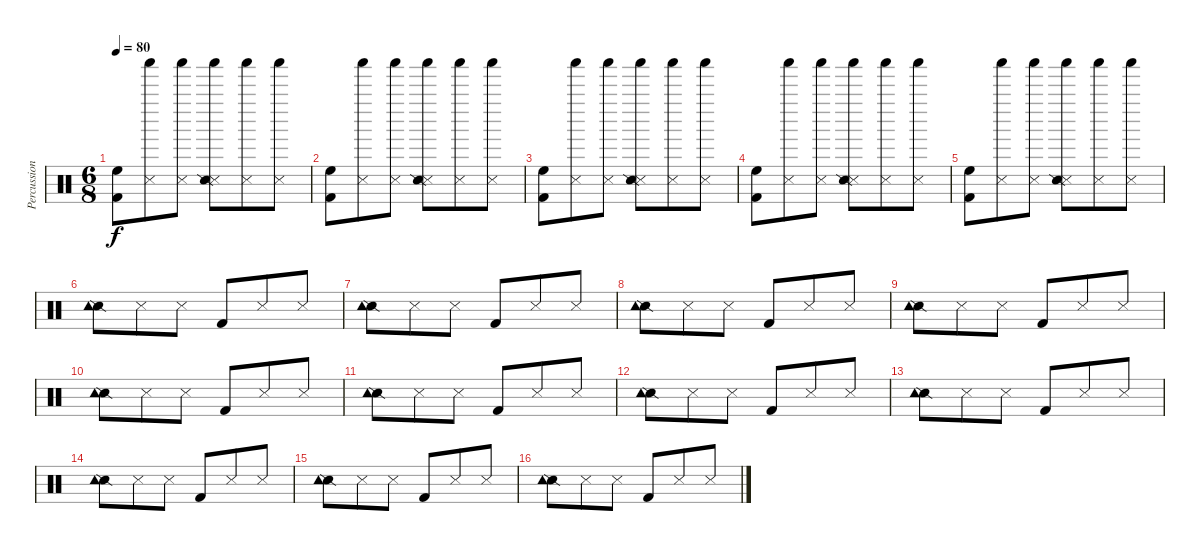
\track ("Percussion" "Percussion") {instrument percussion}
\staff {score}
\articulation defaults
\ts (6 8)
\tempo 80
\clef neutral
\ks c
("Kick (hit) 2" "High Floor Tom (hit)").8{dy f} ("Snare (side stick) 3" "Shaker (hit)").8 ("Snare (side stick) 3" "Shaker (hit)").8 ("Snare (side stick) 3" "Shaker (hit)" "Snare (side stick) 2").8 ("Snare (side stick) 3" "Shaker (hit)").8 ("Snare (side stick) 3" "Shaker (hit)").8 |
("Kick (hit) 2" "High Floor Tom (hit)").8 ("Snare (side stick) 3" "Shaker (hit)").8 ("Snare (side stick) 3" "Shaker (hit)").8 ("Snare (side stick) 3" "Shaker (hit)" "Snare (side stick) 2").8 ("Snare (side stick) 3" "Shaker (hit)").8 ("Snare (side stick) 3" "Shaker (hit)").8 |
("Kick (hit) 2" "High Floor Tom (hit)").8 ("Snare (side stick) 3" "Shaker (hit)").8 ("Snare (side stick) 3" "Shaker (hit)").8 ("Snare (side stick) 3" "Shaker (hit)" "Snare (side stick) 2").8 ("Snare (side stick) 3" "Shaker (hit)").8 ("Snare (side stick) 3" "Shaker (hit)").8 |
("Kick (hit) 2" "High Floor Tom (hit)").8 ("Snare (side stick) 3" "Shaker (hit)").8 ("Snare (side stick) 3" "Shaker (hit)").8 ("Snare (side stick) 3" "Shaker (hit)" "Snare (side stick) 2").8 ("Snare (side stick) 3" "Shaker (hit)").8 ("Snare (side stick) 3" "Shaker (hit)").8 |
("Kick (hit) 2" "High Floor Tom (hit)").8 ("Snare (side stick) 3" "Shaker (hit)").8 ("Snare (side stick) 3" "Shaker (hit)").8 ("Snare (side stick) 3" "Shaker (hit)" "Snare (side stick) 2").8 ("Snare (side stick) 3" "Shaker (hit)").8 ("Snare (side stick) 3" "Shaker (hit)").8 |
("Snare (side stick) 2" "Tambourine (hit)").8 "Snare (side stick) 3".8 "Snare (side stick) 3".8 "Kick (hit) 2".8 "Snare (side stick) 3".8 "Snare (side stick) 3".8 |
("Snare (side stick) 2" "Tambourine (hit)").8 "Snare (side stick) 3".8 "Snare (side stick) 3".8 "Kick (hit) 2".8 "Snare (side stick) 3".8 "Snare (side stick) 3".8 |
("Snare (side stick) 2" "Tambourine (hit)").8 "Snare (side stick) 3".8 "Snare (side stick) 3".8 "Kick (hit) 2".8 "Snare (side stick) 3".8 "Snare (side stick) 3".8 |
("Snare (side stick) 2" "Tambourine (hit)").8 "Snare (side stick) 3".8 "Snare (side stick) 3".8 "Kick (hit) 2".8 "Snare (side stick) 3".8 "Snare (side stick) 3".8 |
("Snare (side stick) 2" "Tambourine (hit)").8 "Snare (side stick) 3".8 "Snare (side stick) 3".8 "Kick (hit) 2".8 "Snare (side stick) 3".8 "Snare (side stick) 3".8 |
("Snare (side stick) 2" "Tambourine (hit)").8 "Snare (side stick) 3".8 "Snare (side stick) 3".8 "Kick (hit) 2".8 "Snare (side stick) 3".8 "Snare (side stick) 3".8 |
("Snare (side stick) 2" "Tambourine (hit)").8 "Snare (side stick) 3".8 "Snare (side stick) 3".8 "Kick (hit) 2".8 "Snare (side stick) 3".8 "Snare (side stick) 3".8 |
("Snare (side stick) 2" "Tambourine (hit)").8 "Snare (side stick) 3".8 "Snare (side stick) 3".8 "Kick (hit) 2".8 "Snare (side stick) 3".8 "Snare (side stick) 3".8 |
("Snare (side stick) 2" "Tambourine (hit)").8 "Snare (side stick) 3".8 "Snare (side stick) 3".8 "Kick (hit) 2".8 "Snare (side stick) 3".8 "Snare (side stick) 3".8 |
("Snare (side stick) 2" "Tambourine (hit)").8 "Snare (side stick) 3".8 "Snare (side stick) 3".8 "Kick (hit) 2".8 "Snare (side stick) 3".8 "Snare (side stick) 3".8 |
("Snare (side stick) 2" "Tambourine (hit)").8 "Snare (side stick) 3".8 "Snare (side stick) 3".8 "Kick (hit) 2".8 "Snare (side stick) 3".8 "Snare (side stick) 3".8
